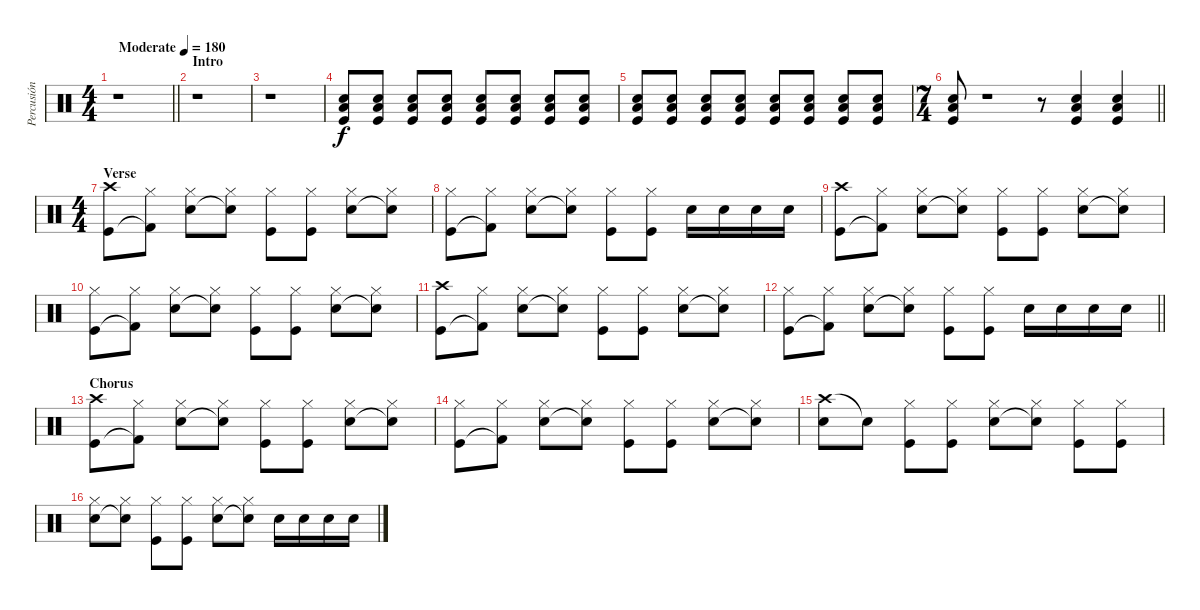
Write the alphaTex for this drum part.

\track ("Percusión" "Percusión") {instrument percussion}
\staff {score}
\articulation defaults
\ts (4 4)
\tempo (180 "Moderate")
\clef neutral
\barLineRight lightlight
\ks c
r.1{dy f} |
\section ("" "Intro")
r.1 |
r.1 |
("Low Floor Tom (hit)" "Snare (hit) 2" "Kick (hit)").8 ("Low Floor Tom (hit)" "Snare (hit) 2" "Kick (hit)").8 ("Low Floor Tom (hit)" "Snare (hit) 2" "Kick (hit)").8 ("Low Floor Tom (hit)" "Snare (hit) 2" "Kick (hit)").8 ("Low Floor Tom (hit)" "Snare (hit) 2" "Kick (hit)").8 ("Low Floor Tom (hit)" "Snare (hit) 2" "Kick (hit)").8 ("Low Floor Tom (hit)" "Snare (hit) 2" "Kick (hit)").8 ("Low Floor Tom (hit)" "Snare (hit) 2" "Kick (hit)").8 |
("Low Floor Tom (hit)" "Snare (hit) 2" "Kick (hit)").8 ("Low Floor Tom (hit)" "Snare (hit) 2" "Kick (hit)").8 ("Low Floor Tom (hit)" "Snare (hit) 2" "Kick (hit)").8 ("Low Floor Tom (hit)" "Snare (hit) 2" "Kick (hit)").8 ("Low Floor Tom (hit)" "Snare (hit) 2" "Kick (hit)").8 ("Low Floor Tom (hit)" "Snare (hit) 2" "Kick (hit)").8 ("Low Floor Tom (hit)" "Snare (hit) 2" "Kick (hit)").8 ("Low Floor Tom (hit)" "Snare (hit) 2" "Kick (hit)").8 |
\ts (7 4)
\barLineRight lightlight
("Low Floor Tom (hit)" "Snare (hit) 2" "Kick (hit)").8 r.1 r.8 ("Low Floor Tom (hit)" "Snare (hit) 2" "Kick (hit)").4 ("Low Floor Tom (hit)" "Snare (hit) 2" "Kick (hit)").4 |
\ts (4 4)
\section ("" "Verse")
("Crash high (hit)" "Kick (hit)").8 ("Hi-Hat (closed)" "Kick (hit) 2"{t}).8 ("Hi-Hat (closed)" "Snare (hit) 2").8 ("Hi-Hat (closed)" "Snare (hit)"{t}).8 ("Hi-Hat (closed)" "Kick (hit)").8 ("Hi-Hat (closed)" "Kick (hit)").8 ("Hi-Hat (closed)" "Snare (hit) 2").8 ("Hi-Hat (closed)" "Snare (hit)"{t}).8 |
("Hi-Hat (closed)" "Kick (hit)").8 ("Hi-Hat (closed)" "Kick (hit) 2"{t}).8 ("Hi-Hat (closed)" "Snare (hit) 2").8 ("Hi-Hat (closed)" "Snare (hit)"{t}).8 ("Hi-Hat (closed)" "Kick (hit)").8 ("Hi-Hat (closed)" "Kick (hit)").8 "Snare (hit) 2".16 "Snare (hit) 2".16 "Snare (hit) 2".16 "Snare (hit) 2".16 |
("Crash high (hit)" "Kick (hit)").8 ("Hi-Hat (closed)" "Kick (hit) 2"{t}).8 ("Hi-Hat (closed)" "Snare (hit) 2").8 ("Hi-Hat (closed)" "Snare (hit)"{t}).8 ("Hi-Hat (closed)" "Kick (hit)").8 ("Hi-Hat (closed)" "Kick (hit)").8 ("Hi-Hat (closed)" "Snare (hit) 2").8 ("Hi-Hat (closed)" "Snare (hit)"{t}).8 |
("Hi-Hat (closed)" "Kick (hit)").8 ("Hi-Hat (closed)" "Kick (hit) 2"{t}).8 ("Hi-Hat (closed)" "Snare (hit) 2").8 ("Hi-Hat (closed)" "Snare (hit)"{t}).8 ("Hi-Hat (closed)" "Kick (hit)").8 ("Hi-Hat (closed)" "Kick (hit)").8 ("Hi-Hat (closed)" "Snare (hit) 2").8 ("Hi-Hat (closed)" "Snare (hit)"{t}).8 |
("Crash high (hit)" "Kick (hit)").8 ("Hi-Hat (closed)" "Kick (hit) 2"{t}).8 ("Hi-Hat (closed)" "Snare (hit) 2").8 ("Hi-Hat (closed)" "Snare (hit)"{t}).8 ("Hi-Hat (closed)" "Kick (hit)").8 ("Hi-Hat (closed)" "Kick (hit)").8 ("Hi-Hat (closed)" "Snare (hit) 2").8 ("Hi-Hat (closed)" "Snare (hit)"{t}).8 |
\barLineRight lightlight
("Hi-Hat (closed)" "Kick (hit)").8 ("Hi-Hat (closed)" "Kick (hit) 2"{t}).8 ("Hi-Hat (closed)" "Snare (hit) 2").8 ("Hi-Hat (closed)" "Snare (hit)"{t}).8 ("Hi-Hat (closed)" "Kick (hit)").8 ("Hi-Hat (closed)" "Kick (hit)").8 "Snare (hit) 2".16 "Snare (hit) 2".16 "Snare (hit) 2".16 "Snare (hit) 2".16 |
\section ("" "Chorus")
("Crash high (hit)" "Kick (hit)").8 ("Hi-Hat (closed)" "Kick (hit) 2"{t}).8 ("Hi-Hat (closed)" "Snare (hit) 2").8 ("Hi-Hat (closed)" "Snare (hit)"{t}).8 ("Hi-Hat (closed)" "Kick (hit)").8 ("Hi-Hat (closed)" "Kick (hit)").8 ("Hi-Hat (closed)" "Snare (hit) 2").8 ("Hi-Hat (closed)" "Snare (hit)"{t}).8 |
("Hi-Hat (closed)" "Kick (hit)").8 ("Hi-Hat (closed)" "Kick (hit) 2"{t}).8 ("Hi-Hat (closed)" "Snare (hit) 2").8 ("Hi-Hat (closed)" "Snare (hit)"{t}).8 ("Hi-Hat (closed)" "Kick (hit)").8 ("Hi-Hat (closed)" "Kick (hit)").8 ("Hi-Hat (closed)" "Snare (hit) 2").8 ("Hi-Hat (closed)" "Snare (hit)"{t}).8 |
("Crash high (hit)" "Snare (hit) 2").8 "Snare (hit)"{t}.8 ("Hi-Hat (closed)" "Kick (hit)").8 ("Hi-Hat (closed)" "Kick (hit)").8 ("Hi-Hat (closed)" "Snare (hit) 2").8 ("Hi-Hat (closed)" "Snare (hit)"{t}).8 ("Hi-Hat (closed)" "Kick (hit)").8 ("Hi-Hat (closed)" "Kick (hit)").8 |
("Hi-Hat (closed)" "Snare (hit) 2").8 ("Hi-Hat (closed)" "Snare (hit)"{t}).8 ("Hi-Hat (closed)" "Kick (hit)").8 ("Hi-Hat (closed)" "Kick (hit)").8 ("Hi-Hat (closed)" "Snare (hit) 2").8 ("Hi-Hat (closed)" "Snare (hit) 2"{t}).8 "Snare (hit) 2".16 "Snare (hit) 2".16 "Snare (hit) 2".16 "Snare (hit) 2".16
